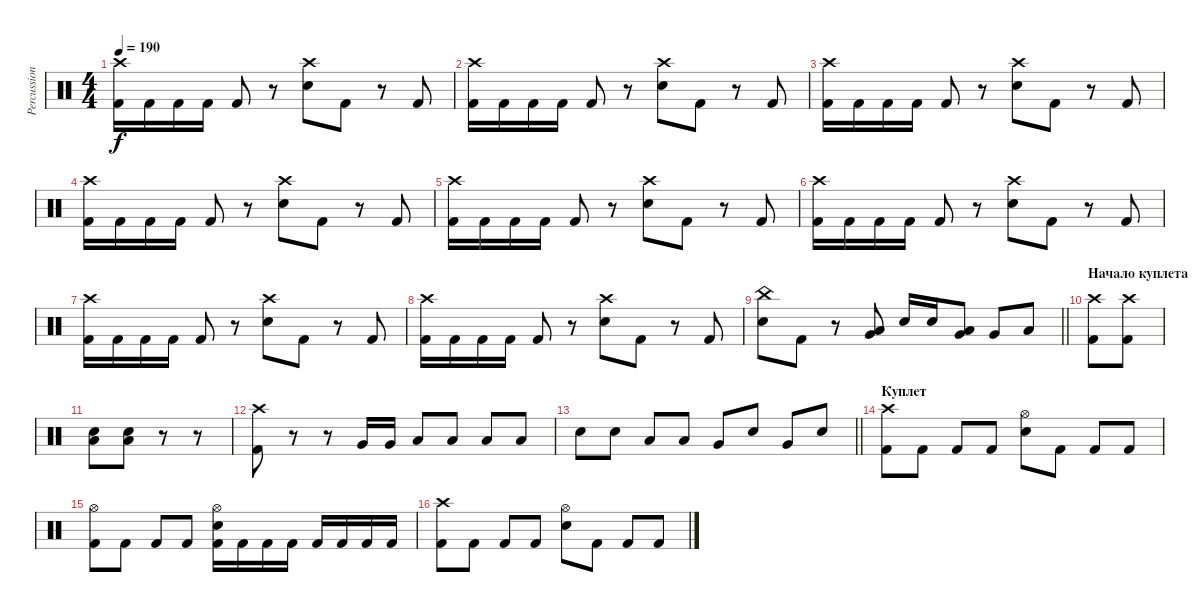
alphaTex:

\track ("Percussions" "Percussion") {instrument percussion}
\staff {score}
\articulation defaults
\ts (4 4)
\tempo 190
\clef neutral
\ks c
("Crash high (hit)" "Kick (hit) 2").16{dy f} "Kick (hit) 2".16 "Kick (hit) 2".16 "Kick (hit) 2".16 "Kick (hit) 2".8 r.8 ("Crash high (hit)" "Electric Snare (hit)").8 "Kick (hit) 2".8 r.8 "Kick (hit) 2".8 |
("Crash high (hit)" "Kick (hit) 2").16 "Kick (hit) 2".16 "Kick (hit) 2".16 "Kick (hit) 2".16 "Kick (hit) 2".8 r.8 ("Crash high (hit)" "Electric Snare (hit)").8 "Kick (hit) 2".8 r.8 "Kick (hit) 2".8 |
("Crash high (hit)" "Kick (hit) 2").16 "Kick (hit) 2".16 "Kick (hit) 2".16 "Kick (hit) 2".16 "Kick (hit) 2".8 r.8 ("Crash high (hit)" "Electric Snare (hit)").8 "Kick (hit) 2".8 r.8 "Kick (hit) 2".8 |
("Crash high (hit)" "Kick (hit) 2").16 "Kick (hit) 2".16 "Kick (hit) 2".16 "Kick (hit) 2".16 "Kick (hit) 2".8 r.8 ("Crash high (hit)" "Electric Snare (hit)").8 "Kick (hit) 2".8 r.8 "Kick (hit) 2".8 |
("Crash high (hit)" "Kick (hit) 2").16 "Kick (hit) 2".16 "Kick (hit) 2".16 "Kick (hit) 2".16 "Kick (hit) 2".8 r.8 ("Crash high (hit)" "Electric Snare (hit)").8 "Kick (hit) 2".8 r.8 "Kick (hit) 2".8 |
("Crash high (hit)" "Kick (hit) 2").16 "Kick (hit) 2".16 "Kick (hit) 2".16 "Kick (hit) 2".16 "Kick (hit) 2".8 r.8 ("Crash high (hit)" "Electric Snare (hit)").8 "Kick (hit) 2".8 r.8 "Kick (hit) 2".8 |
("Crash high (hit)" "Kick (hit) 2").16 "Kick (hit) 2".16 "Kick (hit) 2".16 "Kick (hit) 2".16 "Kick (hit) 2".8 r.8 ("Crash high (hit)" "Electric Snare (hit)").8 "Kick (hit) 2".8 r.8 "Kick (hit) 2".8 |
("Crash high (hit)" "Kick (hit) 2").16 "Kick (hit) 2".16 "Kick (hit) 2".16 "Kick (hit) 2".16 "Kick (hit) 2".8 r.8 ("Crash high (hit)" "Electric Snare (hit)").8 "Kick (hit) 2".8 r.8 "Kick (hit) 2".8 |
\barLineRight lightlight
("Electric Snare (hit)" "China (hit)").8 "Kick (hit) 2".8 r.8 ("Low Floor Tom (hit)" "Very Low Tom (hit)").8 "Electric Snare (hit)".16 "Electric Snare (hit)".16 ("Low Tom (hit)" "Very Low Tom (hit)").8 "Very Low Tom (hit)".8 "Low Tom (hit)".8 |
\section ("" "Начало куплета")
("Kick (hit) 2" "Crash high (hit)").8 ("Kick (hit) 2" "Crash high (hit)").8 |
("Electric Snare (hit)" "Low Floor Tom (hit)").8 ("Electric Snare (hit)" "Low Floor Tom (hit)").8 r.8 r.8 |
("Crash high (hit)" "Kick (hit) 2").8 r.8 r.8 "Very Low Tom (hit)".16 "Very Low Tom (hit)".16 "Low Floor Tom (hit)".8 "Low Floor Tom (hit)".8 "Low Tom (hit)".8 "Low Tom (hit)".8 |
\barLineRight lightlight "Electric Snare (hit)".8 "Electric Snare (hit)".8 "Low Floor Tom (hit)".8 "Low Floor Tom (hit)".8 "Very Low Tom (hit)".8 "Electric Snare (hit)".8 "Very Low Tom (hit)".8 "Electric Snare (hit)".8
|
\section ("" "Куплет")
("Kick (hit) 2" "Crash high (hit)").8 "Kick (hit) 2".8 "Kick (hit) 2".8 "Kick (hit) 2".8 ("Electric Snare (hit)" "Hi-Hat (open)").8 "Kick (hit) 2".8 "Kick (hit) 2".8 "Kick (hit) 2".8 |
("Kick (hit) 2" "Hi-Hat (open)").8 "Kick (hit) 2".8 "Kick (hit) 2".8 "Kick (hit) 2".8 ("Kick (hit) 2" "Electric Snare (hit)" "Hi-Hat (open)").16 "Kick (hit) 2".16 "Kick (hit) 2".16 "Kick (hit) 2".16 "Kick (hit) 2".16 "Kick (hit) 2".16 "Kick (hit) 2".16 "Kick (hit) 2".16 |
("Kick (hit) 2" "Crash high (hit)").8 "Kick (hit) 2".8 "Kick (hit) 2".8 "Kick (hit) 2".8 ("Hi-Hat (open)" "Electric Snare (hit)").8 "Kick (hit) 2".8 "Kick (hit) 2".8 "Kick (hit) 2".8
